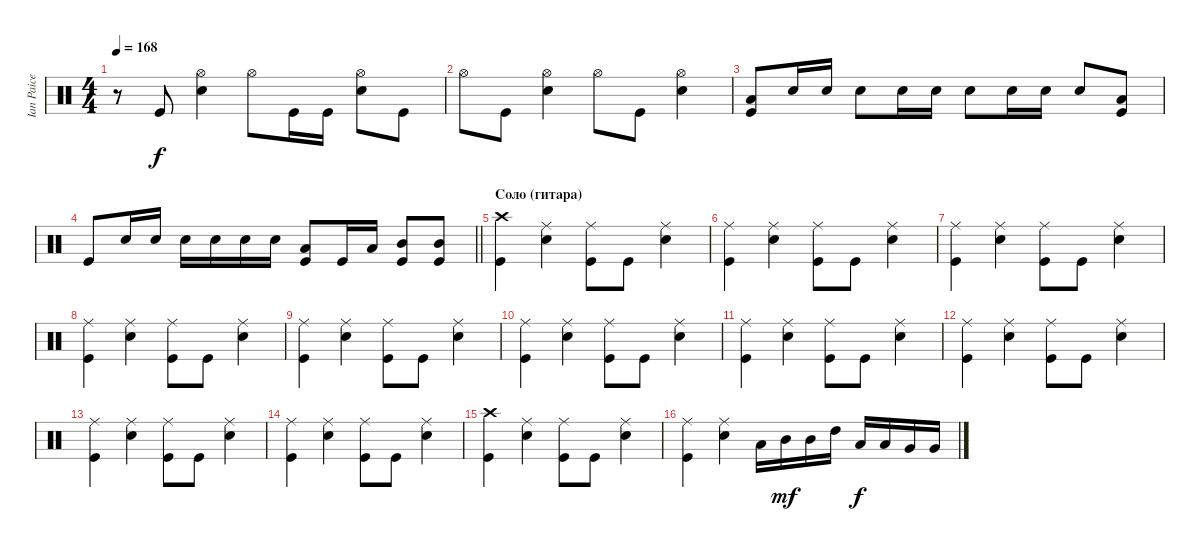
\track ("Ian Paice" "Ian Paice") {instrument percussion}
\staff {score}
\articulation defaults
\ts (4 4)
\tempo 168
\clef neutral
\ks c
r.8{dy f} "Kick (hit)".8 ("Snare (hit) 2" "Hi-Hat (open)").4 "Hi-Hat (open)".8 "Kick (hit)".16 "Kick (hit)".16 ("Snare (hit) 2" "Hi-Hat (open)").8 "Kick (hit)".8 |
"Hi-Hat (open)".8 "Kick (hit)".8 ("Snare (hit) 2" "Hi-Hat (open)").4 "Hi-Hat (open)".8 "Kick (hit)".8 ("Snare (hit) 2" "Hi-Hat (open)").4 |
("Low Tom (hit)" "Kick (hit)").8 "Snare (hit) 2".16 "Snare (hit) 2".16 "Snare (hit) 2".8 "Snare (hit) 2".16 "Snare (hit) 2".16 "Snare (hit) 2".8 "Snare (hit) 2".16 "Snare (hit) 2".16 "Snare (hit) 2".8 ("Low Tom (hit)" "Kick (hit)").8 |
\barLineRight lightlight "Kick (hit)".8 "Snare (hit) 2".16 "Snare (hit) 2".16 "Snare (hit) 2".16 "Snare (hit) 2".16 "Snare (hit) 2".16 "Snare (hit) 2".16
("Low Tom (hit)" "Kick (hit)").8 "Kick (hit)".16 "Low Tom (hit)".16 ("Mid Tom (hit)" "Kick (hit)").8 ("Mid Tom (hit)" "Kick (hit)").8 |
\section ("" "Соло (гитара)")
("Crash high (hit)" "Kick (hit)").4 ("Ride (middle)" "Snare (hit) 2").4 ("Ride (middle)" "Kick (hit)").8 "Kick (hit)".8 ("Ride (middle)" "Snare (hit) 2").4 |
("Kick (hit)" "Ride (middle)").4 ("Ride (middle)" "Snare (hit) 2").4 ("Ride (middle)" "Kick (hit)").8 "Kick (hit)".8 ("Ride (middle)" "Snare (hit) 2").4 |
("Kick (hit)" "Ride (middle)").4 ("Ride (middle)" "Snare (hit) 2").4 ("Ride (middle)" "Kick (hit)").8 "Kick (hit)".8 ("Ride (middle)" "Snare (hit) 2").4 |
("Kick (hit)" "Ride (middle)").4 ("Ride (middle)" "Snare (hit) 2").4 ("Ride (middle)" "Kick (hit)").8 "Kick (hit)".8 ("Ride (middle)" "Snare (hit) 2").4 |
("Kick (hit)" "Ride (middle)").4 ("Ride (middle)" "Snare (hit) 2").4 ("Ride (middle)" "Kick (hit)").8 "Kick (hit)".8 ("Ride (middle)" "Snare (hit) 2").4 |
("Kick (hit)" "Ride (middle)").4 ("Ride (middle)" "Snare (hit) 2").4 ("Ride (middle)" "Kick (hit)").8 "Kick (hit)".8 ("Ride (middle)" "Snare (hit) 2").4 |
("Kick (hit)" "Ride (middle)").4 ("Ride (middle)" "Snare (hit) 2").4 ("Ride (middle)" "Kick (hit)").8 "Kick (hit)".8 ("Ride (middle)" "Snare (hit) 2").4 |
("Kick (hit)" "Ride (middle)").4 ("Ride (middle)" "Snare (hit) 2").4 ("Ride (middle)" "Kick (hit)").8 "Kick (hit)".8 ("Ride (middle)" "Snare (hit) 2").4 |
("Kick (hit)" "Ride (middle)").4 ("Ride (middle)" "Snare (hit) 2").4 ("Ride (middle)" "Kick (hit)").8 "Kick (hit)".8 ("Ride (middle)" "Snare (hit) 2").4 |
("Kick (hit)" "Ride (middle)").4 ("Ride (middle)" "Snare (hit) 2").4 ("Ride (middle)" "Kick (hit)").8 "Kick (hit)".8 ("Ride (middle)" "Snare (hit) 2").4 |
("Crash high (hit)" "Kick (hit)").4 ("Ride (middle)" "Snare (hit) 2").4 ("Ride (middle)" "Kick (hit)").8 "Kick (hit)".8 ("Ride (middle)" "Snare (hit) 2").4 |
("Kick (hit)" "Ride (middle)").4 ("Ride (middle)" "Snare (hit) 2").4 "Low Tom (hit)".16 "Mid Tom (hit)".16{dy mf} "Mid Tom (hit)".16 "High Tom (hit)".16 "Low Tom (hit)".16{dy f} "Low Tom (hit)".16 "Very Low Tom (hit)".16 "Very Low Tom (hit)".16
